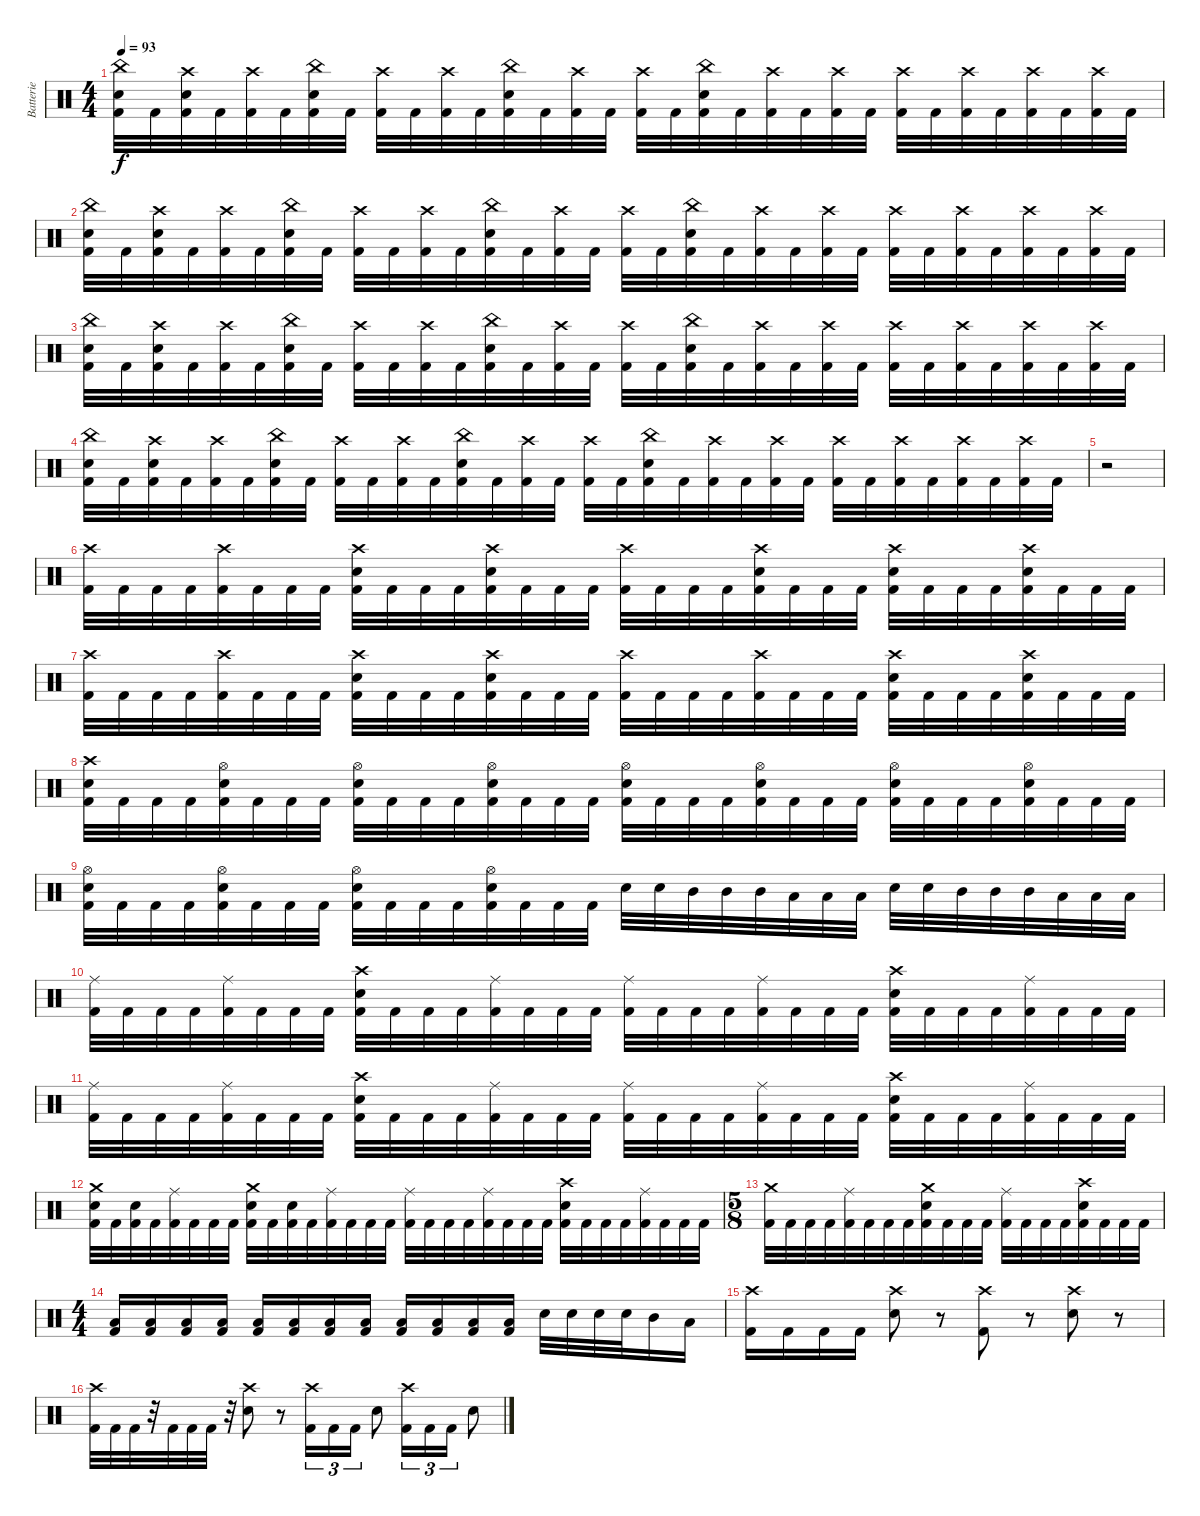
\track ("Batterie" "Batterie") {instrument percussion}
\staff {score}
\articulation defaults
\ts (4 4)
\tempo 93
\clef neutral
\ks c
("China (hit)" "Electric Snare (hit)" "Kick (hit) 2").32{dy f} "Kick (hit) 2".32 ("Crash high (hit)" "Electric Snare (hit)" "Kick (hit) 2").32 "Kick (hit) 2".32 ("Crash high (hit)" "Kick (hit) 2").32 "Kick (hit) 2".32 ("China (hit)" "Electric Snare (hit)" "Kick (hit) 2").32 "Kick (hit) 2".32 ("Crash high (hit)" "Kick (hit) 2").32 "Kick (hit) 2".32 ("Crash high (hit)" "Kick (hit) 2").32 "Kick (hit) 2".32 ("China (hit)" "Electric Snare (hit)" "Kick (hit) 2").32 "Kick (hit) 2".32 ("Crash high (hit)" "Kick (hit) 2").32 "Kick (hit) 2".32 ("Crash high (hit)" "Kick (hit) 2").32 "Kick (hit) 2".32 ("China (hit)" "Electric Snare (hit)" "Kick (hit) 2").32 "Kick (hit) 2".32 ("Crash high (hit)" "Kick (hit) 2").32 "Kick (hit) 2".32 ("Crash high (hit)" "Kick (hit) 2").32 "Kick (hit) 2".32 ("Crash high (hit)" "Kick (hit) 2").32 "Kick (hit) 2".32 ("Crash high (hit)" "Kick (hit) 2").32 "Kick (hit) 2".32 ("Crash high (hit)" "Kick (hit) 2").32 "Kick (hit) 2".32 ("Crash high (hit)" "Kick (hit) 2").32 "Kick (hit) 2".32 |
("China (hit)" "Electric Snare (hit)" "Kick (hit) 2").32 "Kick (hit) 2".32 ("Crash high (hit)" "Electric Snare (hit)" "Kick (hit) 2").32 "Kick (hit) 2".32 ("Crash high (hit)" "Kick (hit) 2").32 "Kick (hit) 2".32 ("China (hit)" "Electric Snare (hit)" "Kick (hit) 2").32 "Kick (hit) 2".32 ("Crash high (hit)" "Kick (hit) 2").32 "Kick (hit) 2".32 ("Crash high (hit)" "Kick (hit) 2").32 "Kick (hit) 2".32 ("China (hit)" "Electric Snare (hit)" "Kick (hit) 2").32 "Kick (hit) 2".32 ("Crash high (hit)" "Kick (hit) 2").32 "Kick (hit) 2".32 ("Crash high (hit)" "Kick (hit) 2").32 "Kick (hit) 2".32 ("China (hit)" "Electric Snare (hit)" "Kick (hit) 2").32 "Kick (hit) 2".32 ("Crash high (hit)" "Kick (hit) 2").32 "Kick (hit) 2".32 ("Crash high (hit)" "Kick (hit) 2").32 "Kick (hit) 2".32 ("Crash high (hit)" "Kick (hit) 2").32 "Kick (hit) 2".32 ("Crash high (hit)" "Kick (hit) 2").32 "Kick (hit) 2".32 ("Crash high (hit)" "Kick (hit) 2").32 "Kick (hit) 2".32 ("Crash high (hit)" "Kick (hit) 2").32 "Kick (hit) 2".32 |
("China (hit)" "Electric Snare (hit)" "Kick (hit) 2").32 "Kick (hit) 2".32 ("Crash high (hit)" "Electric Snare (hit)" "Kick (hit) 2").32 "Kick (hit) 2".32 ("Crash high (hit)" "Kick (hit) 2").32 "Kick (hit) 2".32 ("China (hit)" "Electric Snare (hit)" "Kick (hit) 2").32 "Kick (hit) 2".32 ("Crash high (hit)" "Kick (hit) 2").32 "Kick (hit) 2".32 ("Crash high (hit)" "Kick (hit) 2").32 "Kick (hit) 2".32 ("China (hit)" "Electric Snare (hit)" "Kick (hit) 2").32 "Kick (hit) 2".32 ("Crash high (hit)" "Kick (hit) 2").32 "Kick (hit) 2".32 ("Crash high (hit)" "Kick (hit) 2").32 "Kick (hit) 2".32 ("China (hit)" "Electric Snare (hit)" "Kick (hit) 2").32 "Kick (hit) 2".32 ("Crash high (hit)" "Kick (hit) 2").32 "Kick (hit) 2".32 ("Crash high (hit)" "Kick (hit) 2").32 "Kick (hit) 2".32 ("Crash high (hit)" "Kick (hit) 2").32 "Kick (hit) 2".32 ("Crash high (hit)" "Kick (hit) 2").32 "Kick (hit) 2".32 ("Crash high (hit)" "Kick (hit) 2").32 "Kick (hit) 2".32 ("Crash high (hit)" "Kick (hit) 2").32 "Kick (hit) 2".32 |
("China (hit)" "Electric Snare (hit)" "Kick (hit) 2").32 "Kick (hit) 2".32 ("Crash high (hit)" "Electric Snare (hit)" "Kick (hit) 2").32 "Kick (hit) 2".32 ("Crash high (hit)" "Kick (hit) 2").32 "Kick (hit) 2".32 ("China (hit)" "Electric Snare (hit)" "Kick (hit) 2").32 "Kick (hit) 2".32 ("Crash high (hit)" "Kick (hit) 2").32 "Kick (hit) 2".32 ("Crash high (hit)" "Kick (hit) 2").32 "Kick (hit) 2".32 ("China (hit)" "Electric Snare (hit)" "Kick (hit) 2").32 "Kick (hit) 2".32 ("Crash high (hit)" "Kick (hit) 2").32 "Kick (hit) 2".32 ("Crash high (hit)" "Kick (hit) 2").32 "Kick (hit) 2".32 ("China (hit)" "Electric Snare (hit)" "Kick (hit) 2").32 "Kick (hit) 2".32 ("Crash high (hit)" "Kick (hit) 2").32 "Kick (hit) 2".32 ("Crash high (hit)" "Kick (hit) 2").32 "Kick (hit) 2".32 ("Crash high (hit)" "Kick (hit) 2").32 "Kick (hit) 2".32 ("Crash high (hit)" "Kick (hit) 2").32 "Kick (hit) 2".32 ("Crash high (hit)" "Kick (hit) 2").32 "Kick (hit) 2".32 ("Crash high (hit)" "Kick (hit) 2").32 "Kick (hit) 2".32 |
r.2 |
\section ("" "")
("Crash high (hit)" "Kick (hit) 2").32 "Kick (hit) 2".32 "Kick (hit) 2".32 "Kick (hit) 2".32 ("Crash high (hit)" "Kick (hit) 2").32 "Kick (hit) 2".32 "Kick (hit) 2".32 "Kick (hit) 2".32 ("Crash high (hit)" "Electric Snare (hit)" "Kick (hit) 2").32 "Kick (hit) 2".32 "Kick (hit) 2".32 "Kick (hit) 2".32 ("Crash high (hit)" "Electric Snare (hit)" "Kick (hit) 2").32 "Kick (hit) 2".32 "Kick (hit) 2".32 "Kick (hit) 2".32 ("Crash high (hit)" "Kick (hit) 2").32 "Kick (hit) 2".32 "Kick (hit) 2".32 "Kick (hit) 2".32 ("Crash high (hit)" "Electric Snare (hit)" "Kick (hit) 2").32 "Kick (hit) 2".32 "Kick (hit) 2".32 "Kick (hit) 2".32 ("Crash high (hit)" "Electric Snare (hit)" "Kick (hit) 2").32 "Kick (hit) 2".32 "Kick (hit) 2".32 "Kick (hit) 2".32 ("Crash high (hit)" "Electric Snare (hit)" "Kick (hit) 2").32 "Kick (hit) 2".32 "Kick (hit) 2".32 "Kick (hit) 2".32 |
("Crash high (hit)" "Kick (hit) 2").32 "Kick (hit) 2".32 "Kick (hit) 2".32 "Kick (hit) 2".32 ("Crash high (hit)" "Kick (hit) 2").32 "Kick (hit) 2".32 "Kick (hit) 2".32 "Kick (hit) 2".32 ("Crash high (hit)" "Electric Snare (hit)" "Kick (hit) 2").32 "Kick (hit) 2".32 "Kick (hit) 2".32 "Kick (hit) 2".32 ("Crash high (hit)" "Electric Snare (hit)" "Kick (hit) 2").32 "Kick (hit) 2".32 "Kick (hit) 2".32 "Kick (hit) 2".32 ("Crash high (hit)" "Kick (hit) 2").32 "Kick (hit) 2".32 "Kick (hit) 2".32 "Kick (hit) 2".32 ("Crash high (hit)" "Kick (hit) 2").32 "Kick (hit) 2".32 "Kick (hit) 2".32 "Kick (hit) 2".32 ("Crash high (hit)" "Electric Snare (hit)" "Kick (hit) 2").32 "Kick (hit) 2".32 "Kick (hit) 2".32 "Kick (hit) 2".32 ("Crash high (hit)" "Electric Snare (hit)" "Kick (hit) 2").32 "Kick (hit) 2".32 "Kick (hit) 2".32 "Kick (hit) 2".32 |
("Crash high (hit)" "Electric Snare (hit)" "Kick (hit) 2").32 "Kick (hit) 2".32 "Kick (hit) 2".32 "Kick (hit) 2".32 ("Hi-Hat (open)" "Electric Snare (hit)" "Kick (hit) 2").32 "Kick (hit) 2".32 "Kick (hit) 2".32 "Kick (hit) 2".32 ("Hi-Hat (open)" "Electric Snare (hit)" "Kick (hit) 2").32 "Kick (hit) 2".32 "Kick (hit) 2".32 "Kick (hit) 2".32 ("Hi-Hat (open)" "Electric Snare (hit)" "Kick (hit) 2").32 "Kick (hit) 2".32 "Kick (hit) 2".32 "Kick (hit) 2".32 ("Hi-Hat (open)" "Electric Snare (hit)" "Kick (hit) 2").32 "Kick (hit) 2".32 "Kick (hit) 2".32 "Kick (hit) 2".32 ("Hi-Hat (open)" "Electric Snare (hit)" "Kick (hit) 2").32 "Kick (hit) 2".32 "Kick (hit) 2".32 "Kick (hit) 2".32 ("Hi-Hat (open)" "Electric Snare (hit)" "Kick (hit) 2").32 "Kick (hit) 2".32 "Kick (hit) 2".32 "Kick (hit) 2".32 ("Hi-Hat (open)" "Electric Snare (hit)" "Kick (hit) 2").32 "Kick (hit) 2".32 "Kick (hit) 2".32 "Kick (hit) 2".32 |
("Hi-Hat (open)" "Electric Snare (hit)" "Kick (hit) 2").32 "Kick (hit) 2".32 "Kick (hit) 2".32 "Kick (hit) 2".32 ("Hi-Hat (open)" "Electric Snare (hit)" "Kick (hit) 2").32 "Kick (hit) 2".32 "Kick (hit) 2".32 "Kick (hit) 2".32 ("Hi-Hat (open)" "Electric Snare (hit)" "Kick (hit) 2").32 "Kick (hit) 2".32 "Kick (hit) 2".32 "Kick (hit) 2".32 ("Hi-Hat (open)" "Electric Snare (hit)" "Kick (hit) 2").32 "Kick (hit) 2".32 "Kick (hit) 2".32 "Kick (hit) 2".32 "Electric Snare (hit)".32 "Electric Snare (hit)".32 "Mid Tom (hit)".32 "Mid Tom (hit)".32 "Mid Tom (hit)".32 "Low Tom (hit)".32 "Low Tom (hit)".32 "Low Tom (hit)".32 "Electric Snare (hit)".32 "Electric Snare (hit)".32 "Mid Tom (hit)".32 "Mid Tom (hit)".32 "Mid Tom (hit)".32 "Low Tom (hit)".32 "Low Tom (hit)".32 "Low Tom (hit)".32 |
("Ride (middle)" "Kick (hit) 2").32 "Kick (hit) 2".32 "Kick (hit) 2".32 "Kick (hit) 2".32 ("Ride (middle)" "Kick (hit) 2").32 "Kick (hit) 2".32 "Kick (hit) 2".32 "Kick (hit) 2".32 ("Crash high (hit)" "Electric Snare (hit)" "Kick (hit) 2").32 "Kick (hit) 2".32 "Kick (hit) 2".32 "Kick (hit) 2".32 ("Ride (middle)" "Kick (hit) 2").32 "Kick (hit) 2".32 "Kick (hit) 2".32 "Kick (hit) 2".32 ("Ride (middle)" "Kick (hit) 2").32 "Kick (hit) 2".32 "Kick (hit) 2".32 "Kick (hit) 2".32 ("Ride (middle)" "Kick (hit) 2").32 "Kick (hit) 2".32 "Kick (hit) 2".32 "Kick (hit) 2".32 ("Crash high (hit)" "Electric Snare (hit)" "Kick (hit) 2").32 "Kick (hit) 2".32 "Kick (hit) 2".32 "Kick (hit) 2".32 ("Ride (middle)" "Kick (hit) 2").32 "Kick (hit) 2".32 "Kick (hit) 2".32 "Kick (hit) 2".32 |
("Ride (middle)" "Kick (hit) 2").32 "Kick (hit) 2".32 "Kick (hit) 2".32 "Kick (hit) 2".32 ("Ride (middle)" "Kick (hit) 2").32 "Kick (hit) 2".32 "Kick (hit) 2".32 "Kick (hit) 2".32 ("Crash high (hit)" "Electric Snare (hit)" "Kick (hit) 2").32 "Kick (hit) 2".32 "Kick (hit) 2".32 "Kick (hit) 2".32 ("Ride (middle)" "Kick (hit) 2").32 "Kick (hit) 2".32 "Kick (hit) 2".32 "Kick (hit) 2".32 ("Ride (middle)" "Kick (hit) 2").32 "Kick (hit) 2".32 "Kick (hit) 2".32 "Kick (hit) 2".32 ("Ride (middle)" "Kick (hit) 2").32 "Kick (hit) 2".32 "Kick (hit) 2".32 "Kick (hit) 2".32 ("Crash high (hit)" "Electric Snare (hit)" "Kick (hit) 2").32 "Kick (hit) 2".32 "Kick (hit) 2".32 "Kick (hit) 2".32 ("Ride (middle)" "Kick (hit) 2").32 "Kick (hit) 2".32 "Kick (hit) 2".32 "Kick (hit) 2".32 |
("Crash medium (hit)" "Electric Snare (hit)" "Kick (hit) 2").32 "Kick (hit) 2".32 ("Electric Snare (hit)" "Kick (hit) 2").32 "Kick (hit) 2".32 ("Ride (middle)" "Kick (hit) 2").32 "Kick (hit) 2".32 "Kick (hit) 2".32 "Kick (hit) 2".32 ("Crash medium (hit)" "Electric Snare (hit)" "Kick (hit) 2").32 "Kick (hit) 2".32 ("Electric Snare (hit)" "Kick (hit) 2").32 "Kick (hit) 2".32 ("Ride (middle)" "Kick (hit) 2").32 "Kick (hit) 2".32 "Kick (hit) 2".32 "Kick (hit) 2".32 ("Ride (middle)" "Kick (hit) 2").32 "Kick (hit) 2".32 "Kick (hit) 2".32 "Kick (hit) 2".32 ("Ride (middle)" "Kick (hit) 2").32 "Kick (hit) 2".32 "Kick (hit) 2".32 "Kick (hit) 2".32 ("Crash high (hit)" "Electric Snare (hit)" "Kick (hit) 2").32 "Kick (hit) 2".32 "Kick (hit) 2".32 "Kick (hit) 2".32 ("Ride (middle)" "Kick (hit) 2").32 "Kick (hit) 2".32 "Kick (hit) 2".32 "Kick (hit) 2".32 |
\ts (5 8)
("Crash medium (hit)" "Kick (hit) 2").32 "Kick (hit) 2".32 "Kick (hit) 2".32 "Kick (hit) 2".32 ("Ride (middle)" "Kick (hit) 2").32 "Kick (hit) 2".32 "Kick (hit) 2".32 "Kick (hit) 2".32 ("Crash medium (hit)" "Electric Snare (hit)" "Kick (hit) 2").32 "Kick (hit) 2".32 "Kick (hit) 2".32 "Kick (hit) 2".32 ("Ride (middle)" "Kick (hit) 2").32 "Kick (hit) 2".32 "Kick (hit) 2".32 "Kick (hit) 2".32 ("Crash high (hit)" "Electric Snare (hit)" "Kick (hit) 2").32 "Kick (hit) 2".32 "Kick (hit) 2".32 "Kick (hit) 2".32 |
\ts (4 4)
("Low Tom (hit)" "Kick (hit) 2").16 ("Low Tom (hit)" "Kick (hit) 2").16 ("Low Tom (hit)" "Kick (hit) 2").16 ("Low Tom (hit)" "Kick (hit) 2").16 ("Low Tom (hit)" "Kick (hit) 2").16 ("Low Tom (hit)" "Kick (hit) 2").16 ("Low Tom (hit)" "Kick (hit) 2").16 ("Low Tom (hit)" "Kick (hit) 2").16 ("Low Tom (hit)" "Kick (hit) 2").16 ("Low Tom (hit)" "Kick (hit) 2").16 ("Low Tom (hit)" "Kick (hit) 2").16 ("Low Tom (hit)" "Kick (hit) 2").16 "Electric Snare (hit)".32 "Electric Snare (hit)".32 "Electric Snare (hit)".32 "Electric Snare (hit)".32 "Mid Tom (hit)".16 "Low Tom (hit)".16 |
\section ("" "")
("Crash high (hit)" "Kick (hit) 2").16 "Kick (hit) 2".16 "Kick (hit) 2".16 "Kick (hit) 2".16 ("Crash high (hit)" "Electric Snare (hit)").8 r.8 ("Crash high (hit)" "Kick (hit) 2").8 r.8 ("Crash high (hit)" "Electric Snare (hit)").8 r.8 |
("Crash high (hit)" "Kick (hit) 2").32 "Kick (hit) 2".32 "Kick (hit) 2".32 r.32 "Kick (hit) 2".32 "Kick (hit) 2".32 "Kick (hit) 2".32 r.32 ("Crash high (hit)" "Electric Snare (hit)").8 r.8 ("Crash high (hit)" "Kick (hit) 2").16{tu (3 2)} "Kick (hit) 2".16{tu (3 2)} "Kick (hit) 2".16{tu (3 2)} "Electric Snare (hit)".8 ("Crash high (hit)" "Kick (hit) 2").16{tu (3 2)} "Kick (hit) 2".16{tu (3 2)} "Kick (hit) 2".16{tu (3 2)} "Electric Snare (hit)".8
